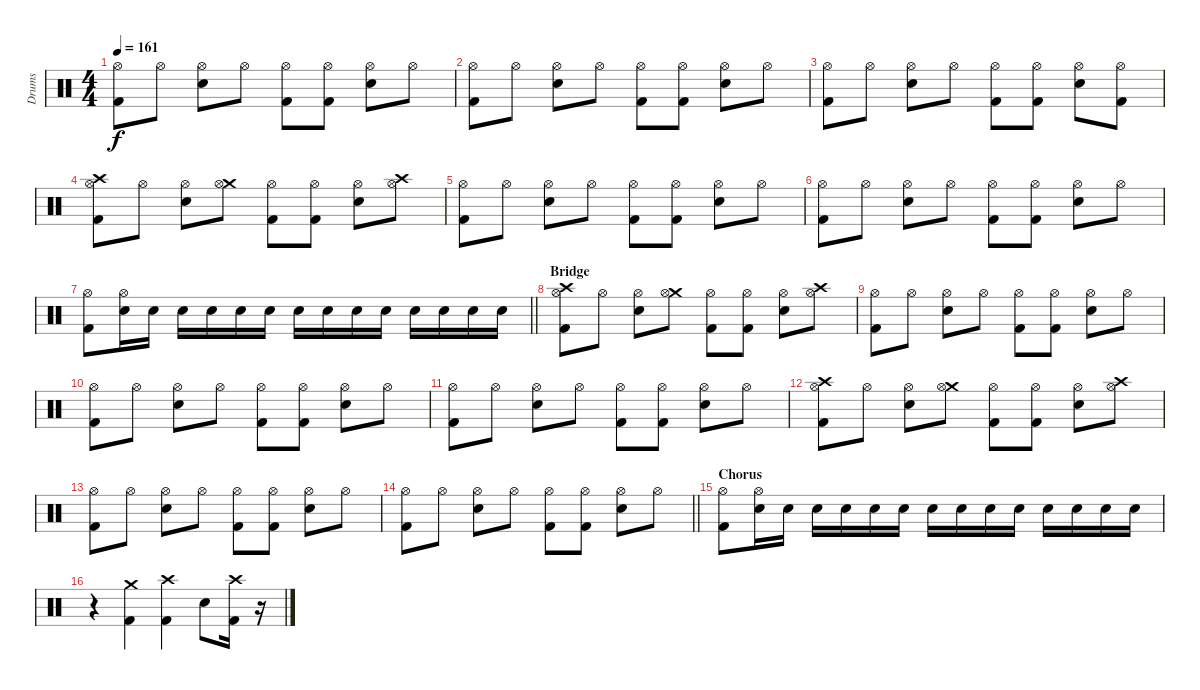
\track ("Drums" "Drums") {instrument percussion}
\staff {score}
\articulation defaults
\ts (4 4)
\tempo 161
\clef neutral
\ks c
("Hi-Hat (open)" "Kick (hit) 2").8{dy f} "Hi-Hat (open)".8 ("Hi-Hat (open)" "Electric Snare (hit)").8 "Hi-Hat (open)".8 ("Hi-Hat (open)" "Kick (hit) 2").8 ("Hi-Hat (open)" "Kick (hit) 2").8 ("Hi-Hat (open)" "Electric Snare (hit)").8 "Hi-Hat (open)".8 |
("Hi-Hat (open)" "Kick (hit) 2").8 "Hi-Hat (open)".8 ("Hi-Hat (open)" "Electric Snare (hit)").8 "Hi-Hat (open)".8 ("Hi-Hat (open)" "Kick (hit) 2").8 ("Hi-Hat (open)" "Kick (hit) 2").8 ("Hi-Hat (open)" "Electric Snare (hit)").8 "Hi-Hat (open)".8 |
("Hi-Hat (open)" "Kick (hit) 2").8 "Hi-Hat (open)".8 ("Hi-Hat (open)" "Electric Snare (hit)").8 "Hi-Hat (open)".8 ("Hi-Hat (open)" "Kick (hit) 2").8 ("Hi-Hat (open)" "Kick (hit) 2").8 ("Hi-Hat (open)" "Electric Snare (hit)").8 ("Hi-Hat (open)" "Kick (hit) 2").8 |
("Crash high (hit)" "Hi-Hat (open)" "Kick (hit) 2").8 "Hi-Hat (open)".8 ("Hi-Hat (open)" "Electric Snare (hit)").8 ("Crash medium (hit)" "Hi-Hat (open)").8 ("Hi-Hat (open)" "Kick (hit) 2").8 ("Hi-Hat (open)" "Kick (hit) 2").8 ("Hi-Hat (open)" "Electric Snare (hit)").8 ("Crash high (hit)" "Hi-Hat (open)").8 |
("Hi-Hat (open)" "Kick (hit) 2").8 "Hi-Hat (open)".8 ("Hi-Hat (open)" "Electric Snare (hit)").8 "Hi-Hat (open)".8 ("Hi-Hat (open)" "Kick (hit) 2").8 ("Hi-Hat (open)" "Kick (hit) 2").8 ("Hi-Hat (open)" "Electric Snare (hit)").8 "Hi-Hat (open)".8 |
("Hi-Hat (open)" "Kick (hit) 2").8 "Hi-Hat (open)".8 ("Hi-Hat (open)" "Electric Snare (hit)").8 "Hi-Hat (open)".8 ("Hi-Hat (open)" "Kick (hit) 2").8 ("Hi-Hat (open)" "Kick (hit) 2").8 ("Hi-Hat (open)" "Electric Snare (hit)").8 "Hi-Hat (open)".8 |
\barLineRight lightlight
("Hi-Hat (open)" "Kick (hit) 2").8 ("Hi-Hat (open)" "Electric Snare (hit)").16 "Electric Snare (hit)".16 "Electric Snare (hit)".16 "Electric Snare (hit)".16 "Electric Snare (hit)".16 "Electric Snare (hit)".16 "Electric Snare (hit)".16 "Electric Snare (hit)".16 "Electric Snare (hit)".16 "Electric Snare (hit)".16 "Electric Snare (hit)".16 "Electric Snare (hit)".16 "Electric Snare (hit)".16 "Electric Snare (hit)".16 |
\section ("" "Bridge")
("Crash high (hit)" "Hi-Hat (open)" "Kick (hit) 2").8 "Hi-Hat (open)".8 ("Hi-Hat (open)" "Electric Snare (hit)").8 ("Crash medium (hit)" "Hi-Hat (open)").8 ("Hi-Hat (open)" "Kick (hit) 2").8 ("Hi-Hat (open)" "Kick (hit) 2").8 ("Hi-Hat (open)" "Electric Snare (hit)").8 ("Crash high (hit)" "Hi-Hat (open)").8 |
("Hi-Hat (open)" "Kick (hit) 2").8 "Hi-Hat (open)".8 ("Hi-Hat (open)" "Electric Snare (hit)").8 "Hi-Hat (open)".8 ("Hi-Hat (open)" "Kick (hit) 2").8 ("Hi-Hat (open)" "Kick (hit) 2").8 ("Hi-Hat (open)" "Electric Snare (hit)").8 "Hi-Hat (open)".8 |
("Hi-Hat (open)" "Kick (hit) 2").8 "Hi-Hat (open)".8 ("Hi-Hat (open)" "Electric Snare (hit)").8 "Hi-Hat (open)".8 ("Hi-Hat (open)" "Kick (hit) 2").8 ("Hi-Hat (open)" "Kick (hit) 2").8 ("Hi-Hat (open)" "Electric Snare (hit)").8 "Hi-Hat (open)".8 |
("Hi-Hat (open)" "Kick (hit) 2").8 "Hi-Hat (open)".8 ("Hi-Hat (open)" "Electric Snare (hit)").8 "Hi-Hat (open)".8 ("Hi-Hat (open)" "Kick (hit) 2").8 ("Hi-Hat (open)" "Kick (hit) 2").8 ("Hi-Hat (open)" "Electric Snare (hit)").8 "Hi-Hat (open)".8 |
("Crash high (hit)" "Hi-Hat (open)" "Kick (hit) 2").8 "Hi-Hat (open)".8 ("Hi-Hat (open)" "Electric Snare (hit)").8 ("Crash medium (hit)" "Hi-Hat (open)").8 ("Hi-Hat (open)" "Kick (hit) 2").8 ("Hi-Hat (open)" "Kick (hit) 2").8 ("Hi-Hat (open)" "Electric Snare (hit)").8 ("Crash high (hit)" "Hi-Hat (open)").8 |
("Hi-Hat (open)" "Kick (hit) 2").8 "Hi-Hat (open)".8 ("Hi-Hat (open)" "Electric Snare (hit)").8 "Hi-Hat (open)".8 ("Hi-Hat (open)" "Kick (hit) 2").8 ("Hi-Hat (open)" "Kick (hit) 2").8 ("Hi-Hat (open)" "Electric Snare (hit)").8 "Hi-Hat (open)".8 |
\barLineRight lightlight
("Hi-Hat (open)" "Kick (hit) 2").8 "Hi-Hat (open)".8 ("Hi-Hat (open)" "Electric Snare (hit)").8 "Hi-Hat (open)".8 ("Hi-Hat (open)" "Kick (hit) 2").8 ("Hi-Hat (open)" "Kick (hit) 2").8 ("Hi-Hat (open)" "Electric Snare (hit)").8 "Hi-Hat (open)".8 |
\section ("" "Chorus")
("Hi-Hat (open)" "Kick (hit) 2").8 ("Hi-Hat (open)" "Electric Snare (hit)").16 "Electric Snare (hit)".16 "Electric Snare (hit)".16 "Electric Snare (hit)".16 "Electric Snare (hit)".16 "Electric Snare (hit)".16 "Electric Snare (hit)".16 "Electric Snare (hit)".16 "Electric Snare (hit)".16 "Electric Snare (hit)".16 "Electric Snare (hit)".16 "Electric Snare (hit)".16 "Electric Snare (hit)".16 "Electric Snare (hit)".16 |
r.4 ("Crash medium (hit)" "Kick (hit) 2").4 ("Crash high (hit)" "Kick (hit) 2").4 "Electric Snare (hit)".8 ("Crash high (hit)" "Kick (hit) 2").16 r.16
